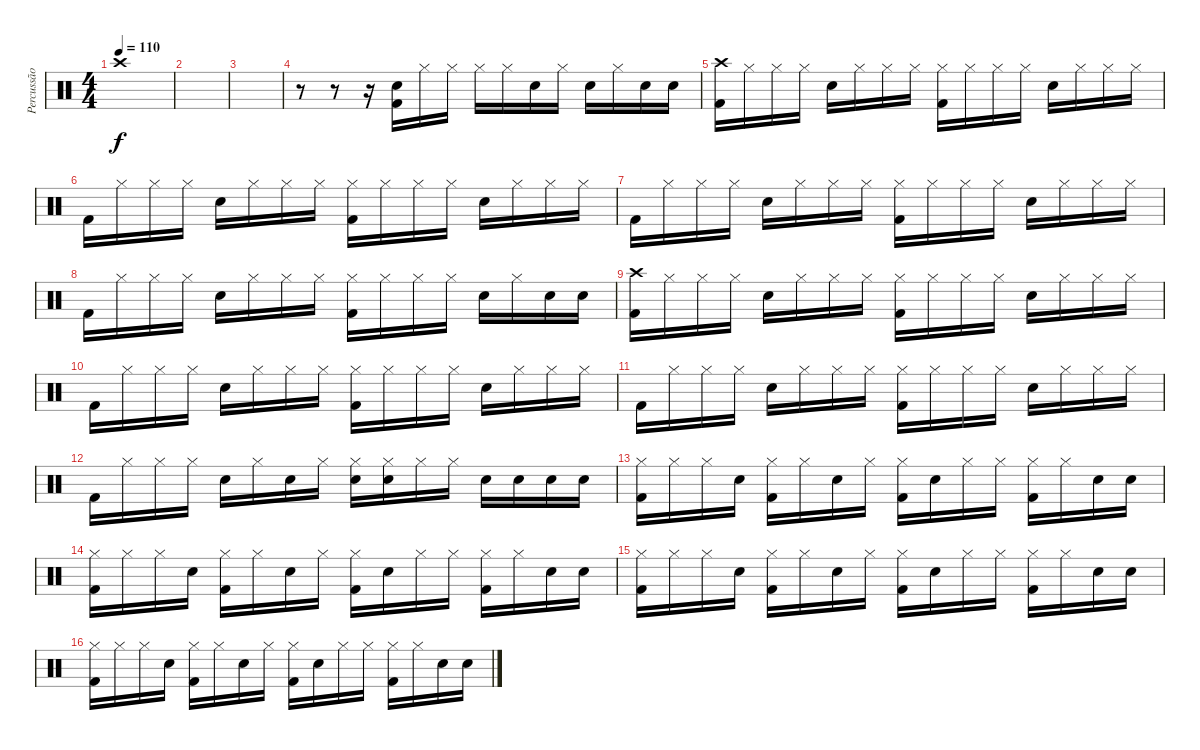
\track ("Percussão" "Percussão") {instrument percussion}
\staff {score}
\articulation defaults
\ts (4 4)
\tempo 110
\clef neutral
\ks c "Crash high (hit)".1{dy f}
|
|
|
r.8 r.8 r.16 ("Kick (hit) 2" "Electric Snare (hit)").16 "Hi-Hat (closed)".16 "Hi-Hat (closed)".16 "Hi-Hat (closed)".16 "Hi-Hat (closed)".16 "Electric Snare (hit)".16 "Hi-Hat (closed)".16 "Electric Snare (hit)".16 "Hi-Hat (closed)".16 "Electric Snare (hit)".16 "Electric Snare (hit)".16 |
("Crash high (hit)" "Kick (hit) 2").16 "Hi-Hat (closed)".16 "Hi-Hat (closed)".16 "Hi-Hat (closed)".16 "Electric Snare (hit)".16 "Hi-Hat (closed)".16 "Hi-Hat (closed)".16 "Hi-Hat (closed)".16 ("Hi-Hat (closed)" "Kick (hit) 2").16 "Hi-Hat (closed)".16 "Hi-Hat (closed)".16 "Hi-Hat (closed)".16 "Electric Snare (hit)".16 "Hi-Hat (closed)".16 "Hi-Hat (closed)".16 "Hi-Hat (closed)".16 |
"Kick (hit) 2".16 "Hi-Hat (closed)".16 "Hi-Hat (closed)".16 "Hi-Hat (closed)".16 "Electric Snare (hit)".16 "Hi-Hat (closed)".16 "Hi-Hat (closed)".16 "Hi-Hat (closed)".16 ("Hi-Hat (closed)" "Kick (hit) 2").16 "Hi-Hat (closed)".16 "Hi-Hat (closed)".16 "Hi-Hat (closed)".16 "Electric Snare (hit)".16 "Hi-Hat (closed)".16 "Hi-Hat (closed)".16 "Hi-Hat (closed)".16 |
"Kick (hit) 2".16 "Hi-Hat (closed)".16 "Hi-Hat (closed)".16 "Hi-Hat (closed)".16 "Electric Snare (hit)".16 "Hi-Hat (closed)".16 "Hi-Hat (closed)".16 "Hi-Hat (closed)".16 ("Hi-Hat (closed)" "Kick (hit) 2").16 "Hi-Hat (closed)".16 "Hi-Hat (closed)".16 "Hi-Hat (closed)".16 "Electric Snare (hit)".16 "Hi-Hat (closed)".16 "Hi-Hat (closed)".16 "Hi-Hat (closed)".16 |
"Kick (hit) 2".16 "Hi-Hat (closed)".16 "Hi-Hat (closed)".16 "Hi-Hat (closed)".16 "Electric Snare (hit)".16 "Hi-Hat (closed)".16 "Hi-Hat (closed)".16 "Hi-Hat (closed)".16 ("Hi-Hat (closed)" "Kick (hit) 2").16 "Hi-Hat (closed)".16 "Hi-Hat (closed)".16 "Hi-Hat (closed)".16 "Electric Snare (hit)".16 "Hi-Hat (closed)".16 "Electric Snare (hit)".16 "Electric Snare (hit)".16 |
("Crash high (hit)" "Kick (hit) 2").16 "Hi-Hat (closed)".16 "Hi-Hat (closed)".16 "Hi-Hat (closed)".16 "Electric Snare (hit)".16 "Hi-Hat (closed)".16 "Hi-Hat (closed)".16 "Hi-Hat (closed)".16 ("Hi-Hat (closed)" "Kick (hit) 2").16 "Hi-Hat (closed)".16 "Hi-Hat (closed)".16 "Hi-Hat (closed)".16 "Electric Snare (hit)".16 "Hi-Hat (closed)".16 "Hi-Hat (closed)".16 "Hi-Hat (closed)".16 |
"Kick (hit) 2".16 "Hi-Hat (closed)".16 "Hi-Hat (closed)".16 "Hi-Hat (closed)".16 "Electric Snare (hit)".16 "Hi-Hat (closed)".16 "Hi-Hat (closed)".16 "Hi-Hat (closed)".16 ("Hi-Hat (closed)" "Kick (hit) 2").16 "Hi-Hat (closed)".16 "Hi-Hat (closed)".16 "Hi-Hat (closed)".16 "Electric Snare (hit)".16 "Hi-Hat (closed)".16 "Hi-Hat (closed)".16 "Hi-Hat (closed)".16 |
"Kick (hit) 2".16 "Hi-Hat (closed)".16 "Hi-Hat (closed)".16 "Hi-Hat (closed)".16 "Electric Snare (hit)".16 "Hi-Hat (closed)".16 "Hi-Hat (closed)".16 "Hi-Hat (closed)".16 ("Hi-Hat (closed)" "Kick (hit) 2").16 "Hi-Hat (closed)".16 "Hi-Hat (closed)".16 "Hi-Hat (closed)".16 "Electric Snare (hit)".16 "Hi-Hat (closed)".16 "Hi-Hat (closed)".16 "Hi-Hat (closed)".16 |
"Kick (hit) 2".16 "Hi-Hat (closed)".16 "Hi-Hat (closed)".16 "Hi-Hat (closed)".16 "Electric Snare (hit)".16 "Hi-Hat (closed)".16 "Electric Snare (hit)".16 "Hi-Hat (closed)".16 ("Hi-Hat (closed)" "Electric Snare (hit)").16 ("Hi-Hat (closed)" "Electric Snare (hit)").16 "Hi-Hat (closed)".16 "Hi-Hat (closed)".16 "Electric Snare (hit)".16 "Electric Snare (hit)".16 "Electric Snare (hit)".16 "Electric Snare (hit)".16 |
("Hi-Hat (closed)" "Kick (hit) 2").16 "Hi-Hat (closed)".16 "Hi-Hat (closed)".16 "Electric Snare (hit)".16 ("Hi-Hat (closed)" "Kick (hit) 2").16 "Hi-Hat (closed)".16 "Electric Snare (hit)".16 "Hi-Hat (closed)".16 ("Hi-Hat (closed)" "Kick (hit) 2").16 "Electric Snare (hit)".16 "Hi-Hat (closed)".16 "Hi-Hat (closed)".16 ("Hi-Hat (closed)" "Kick (hit) 2").16 "Hi-Hat (closed)".16 "Electric Snare (hit)".16 "Electric Snare (hit)".16 |
("Hi-Hat (closed)" "Kick (hit) 2").16 "Hi-Hat (closed)".16 "Hi-Hat (closed)".16 "Electric Snare (hit)".16 ("Hi-Hat (closed)" "Kick (hit) 2").16 "Hi-Hat (closed)".16 "Electric Snare (hit)".16 "Hi-Hat (closed)".16 ("Hi-Hat (closed)" "Kick (hit) 2").16 "Electric Snare (hit)".16 "Hi-Hat (closed)".16 "Hi-Hat (closed)".16 ("Hi-Hat (closed)" "Kick (hit) 2").16 "Hi-Hat (closed)".16 "Electric Snare (hit)".16 "Electric Snare (hit)".16 |
("Hi-Hat (closed)" "Kick (hit) 2").16 "Hi-Hat (closed)".16 "Hi-Hat (closed)".16 "Electric Snare (hit)".16 ("Hi-Hat (closed)" "Kick (hit) 2").16 "Hi-Hat (closed)".16 "Electric Snare (hit)".16 "Hi-Hat (closed)".16 ("Hi-Hat (closed)" "Kick (hit) 2").16 "Electric Snare (hit)".16 "Hi-Hat (closed)".16 "Hi-Hat (closed)".16 ("Hi-Hat (closed)" "Kick (hit) 2").16 "Hi-Hat (closed)".16 "Electric Snare (hit)".16 "Electric Snare (hit)".16 |
("Hi-Hat (closed)" "Kick (hit) 2").16 "Hi-Hat (closed)".16 "Hi-Hat (closed)".16 "Electric Snare (hit)".16 ("Hi-Hat (closed)" "Kick (hit) 2").16 "Hi-Hat (closed)".16 "Electric Snare (hit)".16 "Hi-Hat (closed)".16 ("Hi-Hat (closed)" "Kick (hit) 2").16 "Electric Snare (hit)".16 "Hi-Hat (closed)".16 "Hi-Hat (closed)".16 ("Hi-Hat (closed)" "Kick (hit) 2").16 "Hi-Hat (closed)".16 "Electric Snare (hit)".16 "Electric Snare (hit)".16
